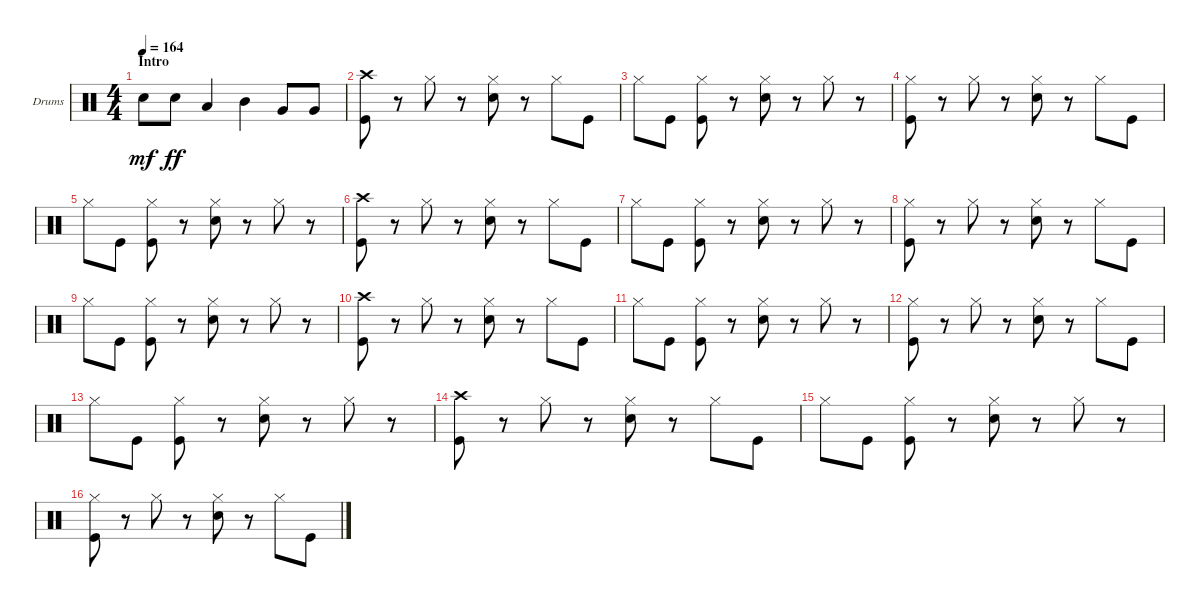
\defaultSystemsLayout 4
\bracketExtendMode groupsimilarinstruments
\firstSystemTrackNameOrientation horizontal
\otherSystemsTrackNameOrientation horizontal
\track ("Drumkit" "Drums") {instrument percussion}
\staff {score}
\articulation defaults
\ts (4 4)
\section ("" "Intro")
\tempo 164
\clef neutral
\ks c "Snare (hit) 2".8{dy mf} "Snare (hit) 2".8{dy ff} "Low Tom (hit)".4 "Mid Tom (hit)".4 "Very Low Tom (hit)".8 "Very Low Tom (hit)".8
|
("Kick (hit)" "Crash high (hit)").8 r.8 "Hi-Hat (closed)".8 r.8 ("Hi-Hat (closed)" "Snare (hit) 2").8 r.8 "Hi-Hat (closed)".8 "Kick (hit)".8 |
"Hi-Hat (closed)".8 "Kick (hit)".8 ("Hi-Hat (closed)" "Kick (hit)").8 r.8 ("Hi-Hat (closed)" "Snare (hit) 2").8 r.8 "Hi-Hat (closed)".8 r.8 |
("Kick (hit)" "Hi-Hat (closed)").8 r.8 "Hi-Hat (closed)".8 r.8 ("Hi-Hat (closed)" "Snare (hit) 2").8 r.8 "Hi-Hat (closed)".8 "Kick (hit)".8 |
"Hi-Hat (closed)".8 "Kick (hit)".8 ("Hi-Hat (closed)" "Kick (hit)").8 r.8 ("Hi-Hat (closed)" "Snare (hit) 2").8 r.8 "Hi-Hat (closed)".8 r.8 |
("Kick (hit)" "Crash high (hit)").8 r.8 "Hi-Hat (closed)".8 r.8 ("Hi-Hat (closed)" "Snare (hit) 2").8 r.8 "Hi-Hat (closed)".8 "Kick (hit)".8 |
"Hi-Hat (closed)".8 "Kick (hit)".8 ("Hi-Hat (closed)" "Kick (hit)").8 r.8 ("Hi-Hat (closed)" "Snare (hit) 2").8 r.8 "Hi-Hat (closed)".8 r.8 |
("Kick (hit)" "Hi-Hat (closed)").8 r.8 "Hi-Hat (closed)".8 r.8 ("Hi-Hat (closed)" "Snare (hit) 2").8 r.8 "Hi-Hat (closed)".8 "Kick (hit)".8 |
"Hi-Hat (closed)".8 "Kick (hit)".8 ("Hi-Hat (closed)" "Kick (hit)").8 r.8 ("Hi-Hat (closed)" "Snare (hit) 2").8 r.8 "Hi-Hat (closed)".8 r.8 |
("Kick (hit)" "Crash high (hit)").8 r.8 "Hi-Hat (closed)".8 r.8 ("Hi-Hat (closed)" "Snare (hit) 2").8 r.8 "Hi-Hat (closed)".8 "Kick (hit)".8 |
"Hi-Hat (closed)".8 "Kick (hit)".8 ("Hi-Hat (closed)" "Kick (hit)").8 r.8 ("Hi-Hat (closed)" "Snare (hit) 2").8 r.8 "Hi-Hat (closed)".8 r.8 |
("Kick (hit)" "Hi-Hat (closed)").8 r.8 "Hi-Hat (closed)".8 r.8 ("Hi-Hat (closed)" "Snare (hit) 2").8 r.8 "Hi-Hat (closed)".8 "Kick (hit)".8 |
"Hi-Hat (closed)".8 "Kick (hit)".8 ("Hi-Hat (closed)" "Kick (hit)").8 r.8 ("Hi-Hat (closed)" "Snare (hit) 2").8 r.8 "Hi-Hat (closed)".8 r.8 |
("Kick (hit)" "Crash high (hit)").8 r.8 "Hi-Hat (closed)".8 r.8 ("Hi-Hat (closed)" "Snare (hit) 2").8 r.8 "Hi-Hat (closed)".8 "Kick (hit)".8 |
"Hi-Hat (closed)".8 "Kick (hit)".8 ("Hi-Hat (closed)" "Kick (hit)").8 r.8 ("Hi-Hat (closed)" "Snare (hit) 2").8 r.8 "Hi-Hat (closed)".8 r.8 |
("Kick (hit)" "Hi-Hat (closed)").8 r.8 "Hi-Hat (closed)".8 r.8 ("Hi-Hat (closed)" "Snare (hit) 2").8 r.8 "Hi-Hat (closed)".8 "Kick (hit)".8
